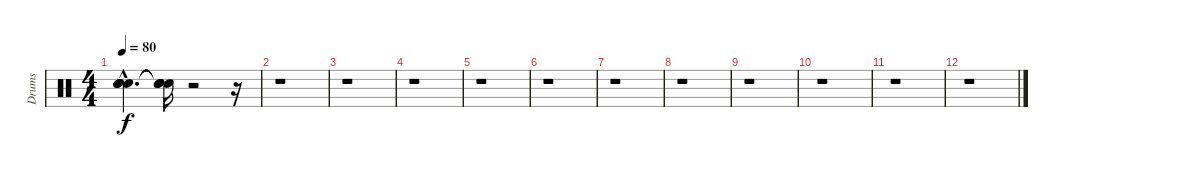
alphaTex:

\track ("Drums" "Drums") {instrument percussion}
\staff {score}
\articulation defaults
\ts (4 4)
\tempo 80
\clef neutral
\ks c
("Snare (hit)"{hac t} "Snare (hit)"{hac t} "Snare (hit)"{hac t} "Snare (hit)"{hac t}).4{d dy f} ("Snare (hit)"{t} "Snare (hit)"{t} "Snare (hit)"{t} "Snare (hit)"{t}).16 r.2 r.16 |
r.1 |
r.1 |
r.1 |
r.1 |
r.1 |
r.1 |
r.1 |
r.1 |
r.1 |
r.1 |
r.1
